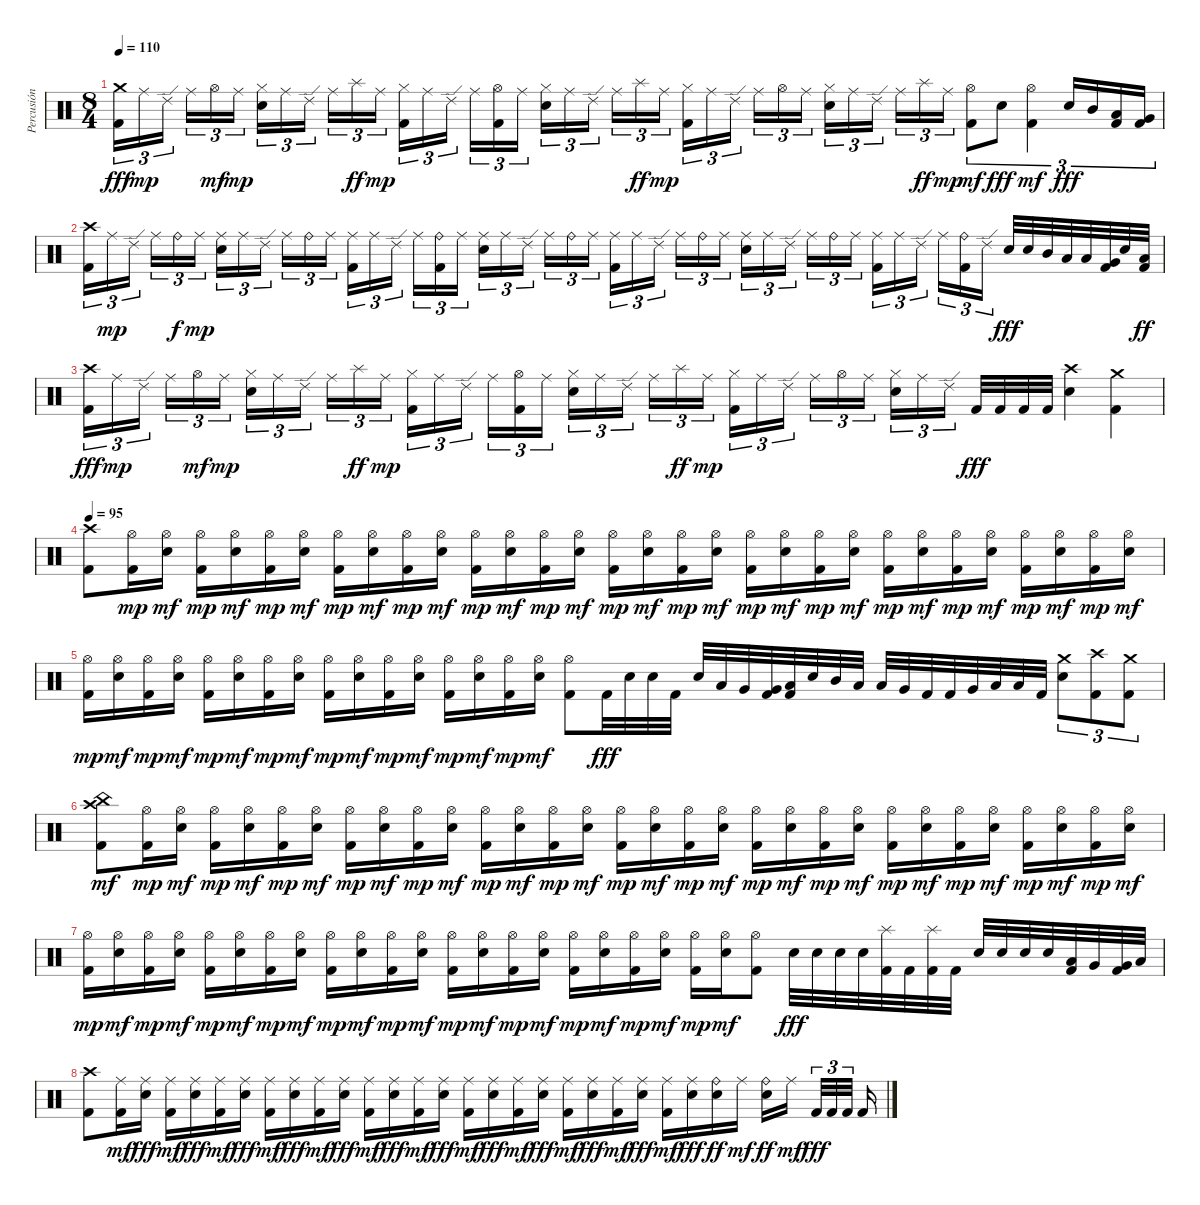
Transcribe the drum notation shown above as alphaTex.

\track ("Percusión" "Percusión") {instrument percussion}
\staff {score}
\articulation defaults
\ts (8 4)
\tempo 110
\clef neutral
\ks c
("Kick (hit) 2" "Crash medium (hit)").16{tu (3 2) dy fff} "Ride (middle)".16{tu (3 2) dy mp} "Ride (edge) 2".16{tu (3 2) beam splitsecondary} "Ride (middle)".16{tu (3 2)} "Hi-Hat (open)".16{tu (3 2) dy mf} "Ride (middle)".16{tu (3 2) dy mp} ("Electric Snare (hit)" "Hi-Hat (closed)").16{tu (3 2)} "Ride (middle)".16{tu (3 2)} "Ride (edge) 2".16{tu (3 2) beam splitsecondary} "Ride (middle)".16{tu (3 2)} "Splash (hit)".16{tu (3 2) dy ff} "Ride (middle)".16{tu (3 2) dy mp} ("Kick (hit) 2" "Hi-Hat (closed)").16{tu (3 2)} "Ride (middle)".16{tu (3 2)} "Ride (edge) 2".16{tu (3 2) beam splitsecondary} "Ride (middle)".16{tu (3 2)} ("Kick (hit) 2" "Hi-Hat (open)").16{tu (3 2)} "Ride (middle)".16{tu (3 2)} ("Electric Snare (hit)" "Hi-Hat (closed)").16{tu (3 2)} "Ride (middle)".16{tu (3 2)} "Ride (edge) 2".16{tu (3 2) beam splitsecondary} "Ride (middle)".16{tu (3 2)} "Splash (hit)".16{tu (3 2) dy ff} "Ride (middle)".16{tu (3 2) dy mp} ("Kick (hit) 2" "Hi-Hat (closed)").16{tu (3 2)} "Ride (middle)".16{tu (3 2)} "Ride (edge) 2".16{tu (3 2) beam splitsecondary} "Ride (middle)".16{tu (3 2)} "Hi-Hat (open)".16{tu (3 2)} "Ride (middle)".16{tu (3 2)} ("Electric Snare (hit)" "Hi-Hat (closed)").16{tu (3 2)} "Ride (middle)".16{tu (3 2)} "Ride (edge) 2".16{tu (3 2) beam splitsecondary} "Ride (middle)".16{tu (3 2)} "Splash (hit)".16{tu (3 2) dy ff} "Ride (middle)".16{tu (3 2) dy mp} ("Kick (hit) 2" "Hi-Hat (open)").8{tu (3 2) dy mf} "Electric Snare (hit)".8{tu (3 2) dy fff} ("Kick (hit) 2" "Hi-Hat (open)").4{tu (3 2) dy mf} "Electric Snare (hit)".16{tu (3 2) dy fff} "Mid Tom (hit)".16{tu (3 2)} ("Kick (hit) 2" "Low Tom (hit)").16{tu (3 2)} ("Kick (hit) 2" "Very Low Tom (hit)").16{tu (3 2)} |
("Kick (hit) 2" "Crash high (hit)").16{tu (3 2)} "Ride (middle)".16{tu (3 2) dy mp} "Ride (edge) 2".16{tu (3 2) beam splitsecondary} "Ride (middle)".16{tu (3 2)} "Ride (bell)".16{tu (3 2) dy f} "Ride (middle)".16{tu (3 2) dy mp} ("Electric Snare (hit)" "Ride (middle)").16{tu (3 2)} "Ride (middle)".16{tu (3 2)} "Ride (edge) 2".16{tu (3 2) beam splitsecondary} "Ride (middle)".16{tu (3 2)} "Ride (bell)".16{tu (3 2)} "Ride (middle)".16{tu (3 2)} ("Kick (hit) 2" "Ride (middle)").16{tu (3 2)} "Ride (middle)".16{tu (3 2)} "Ride (edge) 2".16{tu (3 2) beam splitsecondary} "Ride (middle)".16{tu (3 2)} ("Kick (hit) 2" "Ride (bell)").16{tu (3 2)} "Ride (middle)".16{tu (3 2)} ("Electric Snare (hit)" "Ride (middle)").16{tu (3 2)} "Ride (middle)".16{tu (3 2)} "Ride (edge) 2".16{tu (3 2) beam splitsecondary} "Ride (middle)".16{tu (3 2)} "Ride (bell)".16{tu (3 2)} "Ride (middle)".16{tu (3 2)} ("Kick (hit) 2" "Ride (middle)").16{tu (3 2)} "Ride (middle)".16{tu (3 2)} "Ride (edge) 2".16{tu (3 2) beam splitsecondary} "Ride (middle)".16{tu (3 2)} "Ride (bell)".16{tu (3 2)} "Ride (middle)".16{tu (3 2)} ("Electric Snare (hit)" "Ride (middle)").16{tu (3 2)} "Ride (middle)".16{tu (3 2)} "Ride (edge) 2".16{tu (3 2) beam splitsecondary} "Ride (middle)".16{tu (3 2)} "Ride (bell)".16{tu (3 2)} "Ride (middle)".16{tu (3 2)} ("Kick (hit) 2" "Ride (middle)").16{tu (3 2)} "Ride (middle)".16{tu (3 2)} "Ride (edge) 2".16{tu (3 2) beam splitsecondary} "Ride (middle)".16{tu (3 2)} ("Kick (hit) 2" "Ride (bell)").16{tu (3 2)} "Ride (edge) 2".16{tu (3 2)} "Electric Snare (hit)".32{dy fff} "Electric Snare (hit)".32 "Mid Tom (hit)".32 "Low Tom (hit)".32 "Low Tom (hit)".32 ("Kick (hit) 2" "Very Low Tom (hit)").32 "Electric Snare (hit)".32 ("Kick (hit) 2" "Low Floor Tom (hit)").32{dy ff} |
("Kick (hit) 2" "Crash high (hit)").16{tu (3 2) dy fff} "Ride (middle)".16{tu (3 2) dy mp} "Ride (edge) 2".16{tu (3 2) beam splitsecondary} "Ride (middle)".16{tu (3 2)} "Hi-Hat (open)".16{tu (3 2) dy mf} "Ride (middle)".16{tu (3 2) dy mp} ("Electric Snare (hit)" "Hi-Hat (closed)").16{tu (3 2)} "Ride (middle)".16{tu (3 2)} "Ride (edge) 2".16{tu (3 2) beam splitsecondary} "Ride (middle)".16{tu (3 2)} "Splash (hit)".16{tu (3 2) dy ff} "Ride (middle)".16{tu (3 2) dy mp} ("Kick (hit) 2" "Hi-Hat (closed)").16{tu (3 2)} "Ride (middle)".16{tu (3 2)} "Ride (edge) 2".16{tu (3 2) beam splitsecondary} "Ride (middle)".16{tu (3 2)} ("Kick (hit) 2" "Hi-Hat (open)").16{tu (3 2)} "Ride (middle)".16{tu (3 2)} ("Electric Snare (hit)" "Hi-Hat (closed)").16{tu (3 2)} "Ride (middle)".16{tu (3 2)} "Ride (edge) 2".16{tu (3 2) beam splitsecondary} "Ride (middle)".16{tu (3 2)} "Splash (hit)".16{tu (3 2) dy ff} "Ride (middle)".16{tu (3 2) dy mp} ("Kick (hit) 2" "Hi-Hat (closed)").16{tu (3 2)} "Ride (middle)".16{tu (3 2)} "Ride (edge) 2".16{tu (3 2) beam splitsecondary} "Ride (middle)".16{tu (3 2)} "Hi-Hat (open)".16{tu (3 2)} "Ride (middle)".16{tu (3 2)} ("Electric Snare (hit)" "Hi-Hat (closed)").16{tu (3 2)} "Ride (middle)".16{tu (3 2)} "Ride (edge) 2".16{tu (3 2) beam splitsecondary} "Kick (hit) 2".32{dy fff} "Kick (hit) 2".32 "Kick (hit) 2".32 "Kick (hit) 2".32 ("Electric Snare (hit)" "Crash high (hit)").4 ("Kick (hit) 2" "Crash medium (hit)").4 |
\tempo 95
("Kick (hit) 2" "Crash high (hit)").8 ("Kick (hit) 2" "Hi-Hat (open)").16{dy mp} ("Electric Snare (hit)" "Hi-Hat (open)").16{dy mf} ("Kick (hit) 2" "Hi-Hat (open)").16{dy mp} ("Electric Snare (hit)" "Hi-Hat (open)").16{dy mf} ("Kick (hit) 2" "Hi-Hat (open)").16{dy mp} ("Electric Snare (hit)" "Hi-Hat (open)").16{dy mf} ("Kick (hit) 2" "Hi-Hat (open)").16{dy mp} ("Electric Snare (hit)" "Hi-Hat (open)").16{dy mf} ("Kick (hit) 2" "Hi-Hat (open)").16{dy mp} ("Electric Snare (hit)" "Hi-Hat (open)").16{dy mf} ("Kick (hit) 2" "Hi-Hat (open)").16{dy mp} ("Electric Snare (hit)" "Hi-Hat (open)").16{dy mf} ("Kick (hit) 2" "Hi-Hat (open)").16{dy mp} ("Electric Snare (hit)" "Hi-Hat (open)").16{dy mf} ("Kick (hit) 2" "Hi-Hat (open)").16{dy mp} ("Electric Snare (hit)" "Hi-Hat (open)").16{dy mf} ("Kick (hit) 2" "Hi-Hat (open)").16{dy mp} ("Electric Snare (hit)" "Hi-Hat (open)").16{dy mf} ("Kick (hit) 2" "Hi-Hat (open)").16{dy mp} ("Electric Snare (hit)" "Hi-Hat (open)").16{dy mf} ("Kick (hit) 2" "Hi-Hat (open)").16{dy mp} ("Electric Snare (hit)" "Hi-Hat (open)").16{dy mf} ("Kick (hit) 2" "Hi-Hat (open)").16{dy mp} ("Electric Snare (hit)" "Hi-Hat (open)").16{dy mf} ("Kick (hit) 2" "Hi-Hat (open)").16{dy mp} ("Electric Snare (hit)" "Hi-Hat (open)").16{dy mf} ("Kick (hit) 2" "Hi-Hat (open)").16{dy mp} ("Electric Snare (hit)" "Hi-Hat (open)").16{dy mf} ("Kick (hit) 2" "Hi-Hat (open)").16{dy mp} ("Electric Snare (hit)" "Hi-Hat (open)").16{dy mf} |
("Kick (hit) 2" "Hi-Hat (open)").16{dy mp} ("Electric Snare (hit)" "Hi-Hat (open)").16{dy mf} ("Kick (hit) 2" "Hi-Hat (open)").16{dy mp} ("Electric Snare (hit)" "Hi-Hat (open)").16{dy mf} ("Kick (hit) 2" "Hi-Hat (open)").16{dy mp} ("Electric Snare (hit)" "Hi-Hat (open)").16{dy mf} ("Kick (hit) 2" "Hi-Hat (open)").16{dy mp} ("Electric Snare (hit)" "Hi-Hat (open)").16{dy mf} ("Kick (hit) 2" "Hi-Hat (open)").16{dy mp} ("Electric Snare (hit)" "Hi-Hat (open)").16{dy mf} ("Kick (hit) 2" "Hi-Hat (open)").16{dy mp} ("Electric Snare (hit)" "Hi-Hat (open)").16{dy mf} ("Kick (hit) 2" "Hi-Hat (open)").16{dy mp} ("Electric Snare (hit)" "Hi-Hat (open)").16{dy mf} ("Kick (hit) 2" "Hi-Hat (open)").16{dy mp} ("Electric Snare (hit)" "Hi-Hat (open)").16{dy mf} ("Kick (hit) 2" "Hi-Hat (open)").8 "Kick (hit) 2".32{dy fff} "Electric Snare (hit)".32 "Electric Snare (hit)".32 "Kick (hit) 2".32 "Electric Snare (hit)".32 "Low Tom (hit)".32 "Very Low Tom (hit)".32 ("Kick (hit) 2" "Very Low Tom (hit)").32 ("Kick (hit) 2" "Low Floor Tom (hit)").32 "Electric Snare (hit)".32 "Mid Tom (hit)".32 "Low Tom (hit)".32 "Low Tom (hit)".32 "Very Low Tom (hit)".32 "Kick (hit) 2".32 "Kick (hit) 2".32 "Very Low Tom (hit)".32 "Low Floor Tom (hit)".32 "Low Floor Tom (hit)".32 "Kick (hit) 2".32 ("Electric Snare (hit)" "Crash medium (hit)").8{tu (3 2)} ("Kick (hit) 2" "Crash high (hit)").8{tu (3 2)} ("Kick (hit) 2" "Crash medium (hit)").8{tu (3 2)} |
("Kick (hit) 2" "Crash high (hit)" "China (hit)").8{dy mf} ("Kick (hit) 2" "Hi-Hat (open)").16{dy mp} ("Electric Snare (hit)" "Hi-Hat (open)").16{dy mf} ("Kick (hit) 2" "Hi-Hat (open)").16{dy mp} ("Electric Snare (hit)" "Hi-Hat (open)").16{dy mf} ("Kick (hit) 2" "Hi-Hat (open)").16{dy mp} ("Electric Snare (hit)" "Hi-Hat (open)").16{dy mf} ("Kick (hit) 2" "Hi-Hat (open)").16{dy mp} ("Electric Snare (hit)" "Hi-Hat (open)").16{dy mf} ("Kick (hit) 2" "Hi-Hat (open)").16{dy mp} ("Electric Snare (hit)" "Hi-Hat (open)").16{dy mf} ("Kick (hit) 2" "Hi-Hat (open)").16{dy mp} ("Electric Snare (hit)" "Hi-Hat (open)").16{dy mf} ("Kick (hit) 2" "Hi-Hat (open)").16{dy mp} ("Electric Snare (hit)" "Hi-Hat (open)").16{dy mf} ("Kick (hit) 2" "Hi-Hat (open)").16{dy mp} ("Electric Snare (hit)" "Hi-Hat (open)").16{dy mf} ("Kick (hit) 2" "Hi-Hat (open)").16{dy mp} ("Electric Snare (hit)" "Hi-Hat (open)").16{dy mf} ("Kick (hit) 2" "Hi-Hat (open)").16{dy mp} ("Electric Snare (hit)" "Hi-Hat (open)").16{dy mf} ("Kick (hit) 2" "Hi-Hat (open)").16{dy mp} ("Electric Snare (hit)" "Hi-Hat (open)").16{dy mf} ("Kick (hit) 2" "Hi-Hat (open)").16{dy mp} ("Electric Snare (hit)" "Hi-Hat (open)").16{dy mf} ("Kick (hit) 2" "Hi-Hat (open)").16{dy mp} ("Electric Snare (hit)" "Hi-Hat (open)").16{dy mf} ("Kick (hit) 2" "Hi-Hat (open)").16{dy mp} ("Electric Snare (hit)" "Hi-Hat (open)").16{dy mf} ("Kick (hit) 2" "Hi-Hat (open)").16{dy mp} ("Electric Snare (hit)" "Hi-Hat (open)").16{dy mf} |
("Kick (hit) 2" "Hi-Hat (open)").16{dy mp} ("Electric Snare (hit)" "Hi-Hat (open)").16{dy mf} ("Kick (hit) 2" "Hi-Hat (open)").16{dy mp} ("Electric Snare (hit)" "Hi-Hat (open)").16{dy mf} ("Kick (hit) 2" "Hi-Hat (open)").16{dy mp} ("Electric Snare (hit)" "Hi-Hat (open)").16{dy mf} ("Kick (hit) 2" "Hi-Hat (open)").16{dy mp} ("Electric Snare (hit)" "Hi-Hat (open)").16{dy mf} ("Kick (hit) 2" "Hi-Hat (open)").16{dy mp} ("Electric Snare (hit)" "Hi-Hat (open)").16{dy mf} ("Kick (hit) 2" "Hi-Hat (open)").16{dy mp} ("Electric Snare (hit)" "Hi-Hat (open)").16{dy mf} ("Kick (hit) 2" "Hi-Hat (open)").16{dy mp} ("Electric Snare (hit)" "Hi-Hat (open)").16{dy mf} ("Kick (hit) 2" "Hi-Hat (open)").16{dy mp} ("Electric Snare (hit)" "Hi-Hat (open)").16{dy mf} ("Kick (hit) 2" "Hi-Hat (open)").16{dy mp} ("Electric Snare (hit)" "Hi-Hat (open)").16{dy mf} ("Kick (hit) 2" "Hi-Hat (open)").16{dy mp} ("Electric Snare (hit)" "Hi-Hat (open)").16{dy mf} ("Kick (hit) 2" "Hi-Hat (open)").16{dy mp} ("Electric Snare (hit)" "Hi-Hat (open)").16{dy mf} ("Kick (hit) 2" "Hi-Hat (open)").8 "Electric Snare (hit)".32{dy fff} "Electric Snare (hit)".32 "Electric Snare (hit)".32 "Electric Snare (hit)".32 ("Kick (hit) 2" "Splash (hit)").32 "Kick (hit) 2".32 ("Kick (hit) 2" "Splash (hit)").32 "Kick (hit) 2".32 "Electric Snare (hit)".32 "Electric Snare (hit)".32 "Electric Snare (hit)".32 "Electric Snare (hit)".32 ("Kick (hit) 2" "Low Tom (hit)").32 "Very Low Tom (hit)".32 ("Kick (hit) 2" "Very Low Tom (hit)").32 "Low Floor Tom (hit)".32 |
("Kick (hit) 2" "Crash high (hit)").8 ("Kick (hit) 2" "Ride (middle)").16{dy mf} ("Electric Snare (hit)" "Ride (middle)").16{dy fff} ("Kick (hit) 2" "Ride (middle)").16{dy mf} ("Electric Snare (hit)" "Ride (middle)").16{dy fff} ("Kick (hit) 2" "Ride (middle)").16{dy mf} ("Electric Snare (hit)" "Ride (middle)").16{dy fff} ("Kick (hit) 2" "Ride (middle)").16{dy mf} ("Electric Snare (hit)" "Ride (middle)").16{dy fff} ("Kick (hit) 2" "Ride (middle)").16{dy mf} ("Electric Snare (hit)" "Ride (middle)").16{dy fff} ("Kick (hit) 2" "Ride (middle)").16{dy mf} ("Electric Snare (hit)" "Ride (middle)").16{dy fff} ("Kick (hit) 2" "Ride (middle)").16{dy mf} ("Electric Snare (hit)" "Ride (middle)").16{dy fff} ("Kick (hit) 2" "Ride (middle)").16{dy mf} ("Electric Snare (hit)" "Ride (middle)").16{dy fff} ("Kick (hit) 2" "Ride (middle)").16{dy mf} ("Electric Snare (hit)" "Ride (middle)").16{dy fff} ("Kick (hit) 2" "Ride (middle)").16{dy mf} ("Electric Snare (hit)" "Ride (middle)").16{dy fff} ("Kick (hit) 2" "Ride (middle)").16{dy mf} ("Electric Snare (hit)" "Ride (middle)").16{dy fff} ("Kick (hit) 2" "Ride (middle)").16{dy mf} ("Electric Snare (hit)" "Ride (middle)").16{dy fff} ("Electric Snare (hit)" "Ride (bell)").16{dy ff} "Ride (middle)".16{dy mf} ("Electric Snare (hit)" "Ride (bell)").16{dy ff} "Ride (middle)".16{dy mf beam splitsecondary} "Kick (hit) 2".32{tu (3 2) dy fff} "Kick (hit) 2".32{tu (3 2)} "Kick (hit) 2".32{tu (3 2) beam splitsecondary} "Kick (hit) 2".16
